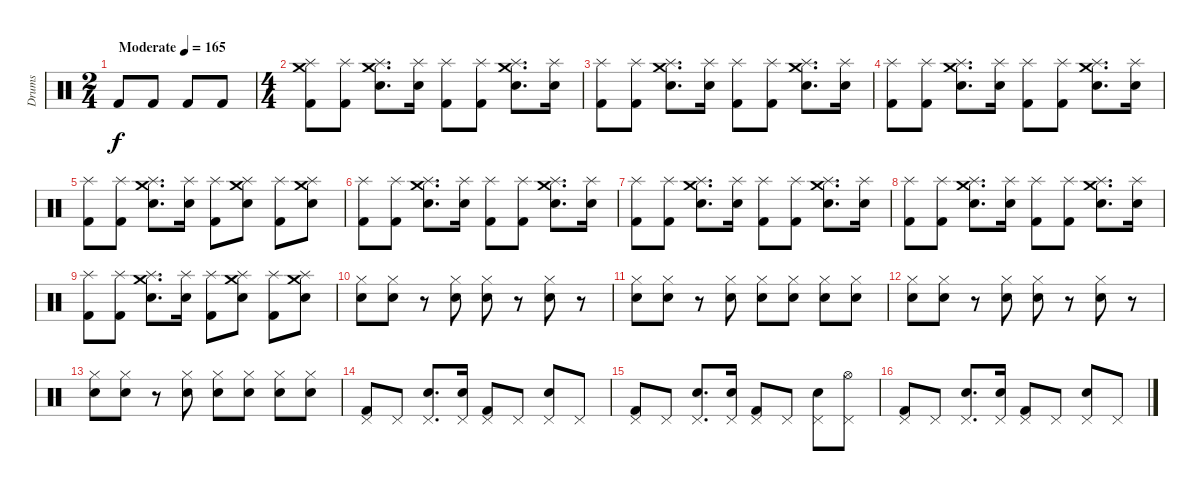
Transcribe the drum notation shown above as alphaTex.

\track ("Drums" "Drums") {instrument percussion}
\staff {score}
\articulation defaults
\ts (2 4)
\tempo (165 "Moderate")
\clef neutral
\ks c "Kick (hit) 2".8{dy f} "Kick (hit) 2".8 "Kick (hit) 2".8 "Kick (hit) 2".8
|
\ts (4 4)
("Crash medium (hit)" "Splash (hit)" "Kick (hit) 2").8 ("Splash (hit)" "Kick (hit) 2").8 ("Crash medium (hit)" "Splash (hit)" "Snare (hit) 2").8{d} ("Splash (hit)" "Electric Snare (hit)").16 ("Splash (hit)" "Kick (hit) 2").8 ("Splash (hit)" "Kick (hit) 2").8 ("Crash medium (hit)" "Splash (hit)" "Snare (hit) 2").8{d} ("Splash (hit)" "Electric Snare (hit)").16 |
("Splash (hit)" "Kick (hit) 2").8 ("Splash (hit)" "Kick (hit) 2").8 ("Crash medium (hit)" "Splash (hit)" "Snare (hit) 2").8{d} ("Splash (hit)" "Electric Snare (hit)").16 ("Splash (hit)" "Kick (hit) 2").8 ("Splash (hit)" "Kick (hit) 2").8 ("Crash medium (hit)" "Splash (hit)" "Snare (hit) 2").8{d} ("Splash (hit)" "Electric Snare (hit)").16 |
("Splash (hit)" "Kick (hit) 2").8 ("Splash (hit)" "Kick (hit) 2").8 ("Crash medium (hit)" "Splash (hit)" "Snare (hit) 2").8{d} ("Splash (hit)" "Electric Snare (hit)").16 ("Splash (hit)" "Kick (hit) 2").8 ("Splash (hit)" "Kick (hit) 2").8 ("Crash medium (hit)" "Splash (hit)" "Snare (hit) 2").8{d} ("Splash (hit)" "Electric Snare (hit)").16 |
("Splash (hit)" "Kick (hit) 2").8 ("Splash (hit)" "Kick (hit) 2").8 ("Crash medium (hit)" "Splash (hit)" "Snare (hit) 2").8{d} ("Splash (hit)" "Electric Snare (hit)").16 ("Splash (hit)" "Kick (hit) 2").8 ("Crash medium (hit)" "Splash (hit)" "Snare (hit) 2").8 ("Splash (hit)" "Kick (hit) 2").8 ("Crash medium (hit)" "Splash (hit)" "Snare (hit) 2").8 |
("Splash (hit)" "Kick (hit) 2").8 ("Splash (hit)" "Kick (hit) 2").8 ("Crash medium (hit)" "Splash (hit)" "Snare (hit) 2").8{d} ("Splash (hit)" "Electric Snare (hit)").16 ("Splash (hit)" "Kick (hit) 2").8 ("Splash (hit)" "Kick (hit) 2").8 ("Crash medium (hit)" "Splash (hit)" "Snare (hit) 2").8{d} ("Splash (hit)" "Electric Snare (hit)").16 |
("Splash (hit)" "Kick (hit) 2").8 ("Splash (hit)" "Kick (hit) 2").8 ("Crash medium (hit)" "Splash (hit)" "Snare (hit) 2").8{d} ("Splash (hit)" "Electric Snare (hit)").16 ("Splash (hit)" "Kick (hit) 2").8 ("Splash (hit)" "Kick (hit) 2").8 ("Crash medium (hit)" "Splash (hit)" "Snare (hit) 2").8{d} ("Splash (hit)" "Electric Snare (hit)").16 |
("Splash (hit)" "Kick (hit) 2").8 ("Splash (hit)" "Kick (hit) 2").8 ("Crash medium (hit)" "Splash (hit)" "Snare (hit) 2").8{d} ("Splash (hit)" "Electric Snare (hit)").16 ("Splash (hit)" "Kick (hit) 2").8 ("Splash (hit)" "Kick (hit) 2").8 ("Crash medium (hit)" "Splash (hit)" "Snare (hit) 2").8{d} ("Splash (hit)" "Electric Snare (hit)").16 |
("Splash (hit)" "Kick (hit) 2").8 ("Splash (hit)" "Kick (hit) 2").8 ("Crash medium (hit)" "Splash (hit)" "Snare (hit) 2").8{d} ("Splash (hit)" "Electric Snare (hit)").16 ("Splash (hit)" "Kick (hit) 2").8 ("Crash medium (hit)" "Splash (hit)" "Snare (hit) 2").8 ("Splash (hit)" "Kick (hit) 2").8 ("Crash medium (hit)" "Splash (hit)" "Snare (hit) 2").8 |
("Hi-Hat (closed)" "Electric Snare (hit)").8 ("Hi-Hat (closed)" "Electric Snare (hit)").8 r.8 ("Hi-Hat (closed)" "Electric Snare (hit)").8 ("Hi-Hat (closed)" "Electric Snare (hit)").8 r.8 ("Hi-Hat (closed)" "Electric Snare (hit)").8 r.8 |
("Hi-Hat (closed)" "Electric Snare (hit)").8 ("Hi-Hat (closed)" "Electric Snare (hit)").8 r.8 ("Hi-Hat (closed)" "Electric Snare (hit)").8 ("Hi-Hat (closed)" "Electric Snare (hit)").8 ("Hi-Hat (closed)" "Electric Snare (hit)").8 ("Hi-Hat (closed)" "Electric Snare (hit)").8 ("Hi-Hat (closed)" "Electric Snare (hit)").8 |
("Hi-Hat (closed)" "Electric Snare (hit)").8 ("Hi-Hat (closed)" "Electric Snare (hit)").8 r.8 ("Hi-Hat (closed)" "Electric Snare (hit)").8 ("Hi-Hat (closed)" "Electric Snare (hit)").8 r.8 ("Hi-Hat (closed)" "Electric Snare (hit)").8 r.8 |
("Hi-Hat (closed)" "Electric Snare (hit)").8 ("Hi-Hat (closed)" "Electric Snare (hit)").8 r.8 ("Hi-Hat (closed)" "Electric Snare (hit)").8 ("Hi-Hat (closed)" "Electric Snare (hit)").8 ("Hi-Hat (closed)" "Electric Snare (hit)").8 ("Hi-Hat (closed)" "Electric Snare (hit)").8 ("Hi-Hat (closed)" "Electric Snare (hit)").8 |
("Pedal Hi-Hat (hit)" "Kick (hit) 2").8 "Pedal Hi-Hat (hit)".8 ("Pedal Hi-Hat (hit)" "Snare (hit) 2").8{d} ("Pedal Hi-Hat (hit)" "Electric Snare (hit)").16 ("Pedal Hi-Hat (hit)" "Kick (hit) 2").8 "Pedal Hi-Hat (hit)".8 ("Pedal Hi-Hat (hit)" "Snare (hit) 2").8 "Pedal Hi-Hat (hit)".8 |
("Pedal Hi-Hat (hit)" "Kick (hit) 2").8 "Pedal Hi-Hat (hit)".8 ("Pedal Hi-Hat (hit)" "Snare (hit) 2").8{d} ("Pedal Hi-Hat (hit)" "Electric Snare (hit)").16 ("Pedal Hi-Hat (hit)" "Kick (hit) 2").8 "Pedal Hi-Hat (hit)".8 ("Pedal Hi-Hat (hit)" "Snare (hit) 2").8 ("Pedal Hi-Hat (hit)" "Hi-Hat (open)").8 |
("Pedal Hi-Hat (hit)" "Kick (hit) 2").8 "Pedal Hi-Hat (hit)".8 ("Pedal Hi-Hat (hit)" "Snare (hit) 2").8{d} ("Pedal Hi-Hat (hit)" "Electric Snare (hit)").16 ("Pedal Hi-Hat (hit)" "Kick (hit) 2").8 "Pedal Hi-Hat (hit)".8 ("Pedal Hi-Hat (hit)" "Snare (hit) 2").8 "Pedal Hi-Hat (hit)".8
